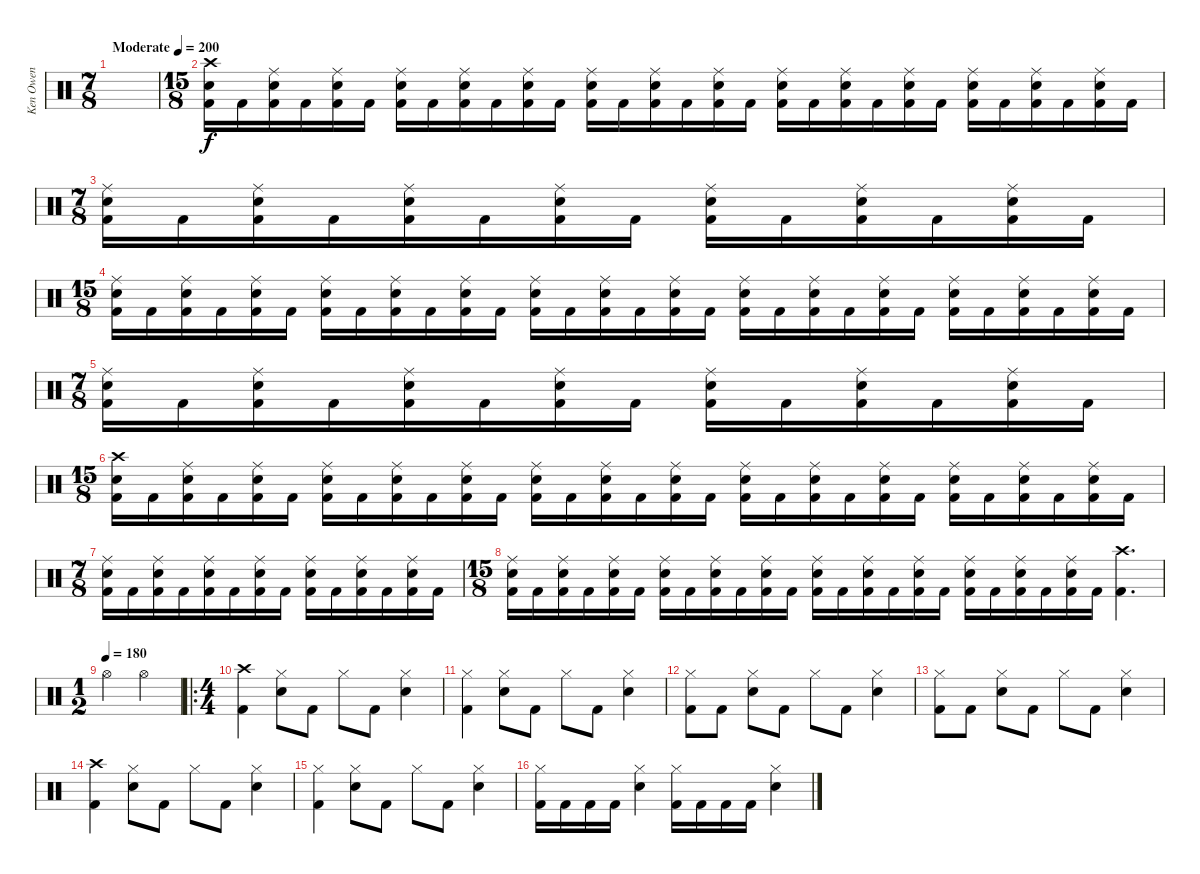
\track ("Ken Owen" "Ken Owen") {instrument percussion}
\staff {score}
\articulation defaults
\ts (7 8)
\tempo (200 "Moderate")
\clef neutral
\ks c
|
\ts (15 8)
("Crash high (hit)" "Snare (hit) 2" "Kick (hit) 2").16 "Kick (hit) 2".16 ("Ride (middle)" "Snare (hit) 2" "Kick (hit) 2").16 "Kick (hit) 2".16 ("Ride (middle)" "Snare (hit) 2" "Kick (hit) 2").16 "Kick (hit) 2".16 ("Ride (middle)" "Snare (hit) 2" "Kick (hit) 2").16 "Kick (hit) 2".16 ("Ride (middle)" "Snare (hit) 2" "Kick (hit) 2").16 "Kick (hit) 2".16 ("Ride (middle)" "Snare (hit) 2" "Kick (hit) 2").16 "Kick (hit) 2".16 ("Ride (middle)" "Snare (hit) 2" "Kick (hit) 2").16 "Kick (hit) 2".16 ("Ride (middle)" "Snare (hit) 2" "Kick (hit) 2").16 "Kick (hit) 2".16 ("Ride (middle)" "Snare (hit) 2" "Kick (hit) 2").16 "Kick (hit) 2".16 ("Ride (middle)" "Snare (hit) 2" "Kick (hit) 2").16 "Kick (hit) 2".16 ("Ride (middle)" "Snare (hit) 2" "Kick (hit) 2").16 "Kick (hit) 2".16 ("Ride (middle)" "Snare (hit) 2" "Kick (hit) 2").16 "Kick (hit) 2".16 ("Ride (middle)" "Snare (hit) 2" "Kick (hit) 2").16 "Kick (hit) 2".16 ("Ride (middle)" "Snare (hit) 2" "Kick (hit) 2").16 "Kick (hit) 2".16 ("Ride (middle)" "Snare (hit) 2" "Kick (hit) 2").16 "Kick (hit) 2".16 |
\ts (7 8)
("Ride (middle)" "Snare (hit) 2" "Kick (hit) 2").16 "Kick (hit) 2".16 ("Ride (middle)" "Snare (hit) 2" "Kick (hit) 2").16 "Kick (hit) 2".16 ("Ride (middle)" "Snare (hit) 2" "Kick (hit) 2").16 "Kick (hit) 2".16 ("Ride (middle)" "Snare (hit) 2" "Kick (hit) 2").16 "Kick (hit) 2".16 ("Ride (middle)" "Snare (hit) 2" "Kick (hit) 2").16 "Kick (hit) 2".16 ("Ride (middle)" "Snare (hit) 2" "Kick (hit) 2").16 "Kick (hit) 2".16 ("Ride (middle)" "Snare (hit) 2" "Kick (hit) 2").16 "Kick (hit) 2".16 |
\ts (15 8)
("Ride (middle)" "Snare (hit) 2" "Kick (hit) 2").16 "Kick (hit) 2".16 ("Ride (middle)" "Snare (hit) 2" "Kick (hit) 2").16 "Kick (hit) 2".16 ("Ride (middle)" "Snare (hit) 2" "Kick (hit) 2").16 "Kick (hit) 2".16 ("Ride (middle)" "Snare (hit) 2" "Kick (hit) 2").16 "Kick (hit) 2".16 ("Ride (middle)" "Snare (hit) 2" "Kick (hit) 2").16 "Kick (hit) 2".16 ("Ride (middle)" "Snare (hit) 2" "Kick (hit) 2").16 "Kick (hit) 2".16 ("Ride (middle)" "Snare (hit) 2" "Kick (hit) 2").16 "Kick (hit) 2".16 ("Ride (middle)" "Snare (hit) 2" "Kick (hit) 2").16 "Kick (hit) 2".16 ("Ride (middle)" "Snare (hit) 2" "Kick (hit) 2").16 "Kick (hit) 2".16 ("Ride (middle)" "Snare (hit) 2" "Kick (hit) 2").16 "Kick (hit) 2".16 ("Ride (middle)" "Snare (hit) 2" "Kick (hit) 2").16 "Kick (hit) 2".16 ("Ride (middle)" "Snare (hit) 2" "Kick (hit) 2").16 "Kick (hit) 2".16 ("Ride (middle)" "Snare (hit) 2" "Kick (hit) 2").16 "Kick (hit) 2".16 ("Ride (middle)" "Snare (hit) 2" "Kick (hit) 2").16 "Kick (hit) 2".16 ("Ride (middle)" "Snare (hit) 2" "Kick (hit) 2").16 "Kick (hit) 2".16 |
\ts (7 8)
("Ride (middle)" "Snare (hit) 2" "Kick (hit) 2").16 "Kick (hit) 2".16 ("Ride (middle)" "Snare (hit) 2" "Kick (hit) 2").16 "Kick (hit) 2".16 ("Ride (middle)" "Snare (hit) 2" "Kick (hit) 2").16 "Kick (hit) 2".16 ("Ride (middle)" "Snare (hit) 2" "Kick (hit) 2").16 "Kick (hit) 2".16 ("Ride (middle)" "Snare (hit) 2" "Kick (hit) 2").16 "Kick (hit) 2".16 ("Ride (middle)" "Snare (hit) 2" "Kick (hit) 2").16 "Kick (hit) 2".16 ("Ride (middle)" "Snare (hit) 2" "Kick (hit) 2").16 "Kick (hit) 2".16 |
\ts (15 8)
("Crash high (hit)" "Snare (hit) 2" "Kick (hit) 2").16 "Kick (hit) 2".16 ("Ride (middle)" "Snare (hit) 2" "Kick (hit) 2").16 "Kick (hit) 2".16 ("Ride (middle)" "Snare (hit) 2" "Kick (hit) 2").16 "Kick (hit) 2".16 ("Ride (middle)" "Snare (hit) 2" "Kick (hit) 2").16 "Kick (hit) 2".16 ("Ride (middle)" "Snare (hit) 2" "Kick (hit) 2").16 "Kick (hit) 2".16 ("Ride (middle)" "Snare (hit) 2" "Kick (hit) 2").16 "Kick (hit) 2".16 ("Ride (middle)" "Snare (hit) 2" "Kick (hit) 2").16 "Kick (hit) 2".16 ("Ride (middle)" "Snare (hit) 2" "Kick (hit) 2").16 "Kick (hit) 2".16 ("Ride (middle)" "Snare (hit) 2" "Kick (hit) 2").16 "Kick (hit) 2".16 ("Ride (middle)" "Snare (hit) 2" "Kick (hit) 2").16 "Kick (hit) 2".16 ("Ride (middle)" "Snare (hit) 2" "Kick (hit) 2").16 "Kick (hit) 2".16 ("Ride (middle)" "Snare (hit) 2" "Kick (hit) 2").16 "Kick (hit) 2".16 ("Ride (middle)" "Snare (hit) 2" "Kick (hit) 2").16 "Kick (hit) 2".16 ("Ride (middle)" "Snare (hit) 2" "Kick (hit) 2").16 "Kick (hit) 2".16 ("Ride (middle)" "Snare (hit) 2" "Kick (hit) 2").16 "Kick (hit) 2".16 |
\ts (7 8)
("Ride (middle)" "Snare (hit) 2" "Kick (hit) 2").16 "Kick (hit) 2".16 ("Ride (middle)" "Snare (hit) 2" "Kick (hit) 2").16 "Kick (hit) 2".16 ("Ride (middle)" "Snare (hit) 2" "Kick (hit) 2").16 "Kick (hit) 2".16 ("Ride (middle)" "Snare (hit) 2" "Kick (hit) 2").16 "Kick (hit) 2".16 ("Ride (middle)" "Snare (hit) 2" "Kick (hit) 2").16 "Kick (hit) 2".16 ("Ride (middle)" "Snare (hit) 2" "Kick (hit) 2").16 "Kick (hit) 2".16 ("Ride (middle)" "Snare (hit) 2" "Kick (hit) 2").16 "Kick (hit) 2".16 |
\ts (15 8)
("Ride (middle)" "Snare (hit) 2" "Kick (hit) 2").16 "Kick (hit) 2".16 ("Ride (middle)" "Snare (hit) 2" "Kick (hit) 2").16 "Kick (hit) 2".16 ("Ride (middle)" "Snare (hit) 2" "Kick (hit) 2").16 "Kick (hit) 2".16 ("Ride (middle)" "Snare (hit) 2" "Kick (hit) 2").16 "Kick (hit) 2".16 ("Ride (middle)" "Snare (hit) 2" "Kick (hit) 2").16 "Kick (hit) 2".16 ("Ride (middle)" "Snare (hit) 2" "Kick (hit) 2").16 "Kick (hit) 2".16 ("Ride (middle)" "Snare (hit) 2" "Kick (hit) 2").16 "Kick (hit) 2".16 ("Ride (middle)" "Snare (hit) 2" "Kick (hit) 2").16 "Kick (hit) 2".16 ("Ride (middle)" "Snare (hit) 2" "Kick (hit) 2").16 "Kick (hit) 2".16 ("Ride (middle)" "Snare (hit) 2" "Kick (hit) 2").16 "Kick (hit) 2".16 ("Ride (middle)" "Snare (hit) 2" "Kick (hit) 2").16 "Kick (hit) 2".16 ("Ride (middle)" "Snare (hit) 2" "Kick (hit) 2").16 "Kick (hit) 2".16 ("Crash high (hit)" "Kick (hit) 2").4{d} |
\ts (1 2)
\tempo (180)
"Hi-Hat (open)".4 "Hi-Hat (open)".4 |
\ro
\ts (4 4)
("Crash high (hit)" "Kick (hit) 2").4 ("Hi-Hat (closed)" "Snare (hit) 2").8 "Kick (hit) 2".8 "Hi-Hat (closed)".8 "Kick (hit) 2".8 ("Hi-Hat (closed)" "Snare (hit) 2").4 |
("Hi-Hat (closed)" "Kick (hit) 2").4 ("Hi-Hat (closed)" "Snare (hit) 2").8 "Kick (hit) 2".8 "Hi-Hat (closed)".8 "Kick (hit) 2".8 ("Hi-Hat (closed)" "Snare (hit) 2").4 |
("Hi-Hat (closed)" "Kick (hit) 2").8 "Kick (hit) 2".8 ("Hi-Hat (closed)" "Snare (hit) 2").8 "Kick (hit) 2".8 "Hi-Hat (closed)".8 "Kick (hit) 2".8 ("Hi-Hat (closed)" "Snare (hit) 2").4 |
("Hi-Hat (closed)" "Kick (hit) 2").8 "Kick (hit) 2".8 ("Hi-Hat (closed)" "Snare (hit) 2").8 "Kick (hit) 2".8 "Hi-Hat (closed)".8 "Kick (hit) 2".8 ("Hi-Hat (closed)" "Snare (hit) 2").4 |
("Crash high (hit)" "Kick (hit) 2").4 ("Hi-Hat (closed)" "Snare (hit) 2").8 "Kick (hit) 2".8 "Hi-Hat (closed)".8 "Kick (hit) 2".8 ("Hi-Hat (closed)" "Snare (hit) 2").4 |
("Hi-Hat (closed)" "Kick (hit) 2").4 ("Hi-Hat (closed)" "Snare (hit) 2").8 "Kick (hit) 2".8 "Hi-Hat (closed)".8 "Kick (hit) 2".8 ("Hi-Hat (closed)" "Snare (hit) 2").4 |
("Hi-Hat (closed)" "Kick (hit) 2").16 "Kick (hit) 2".16 "Kick (hit) 2".16 "Kick (hit) 2".16 ("Hi-Hat (closed)" "Snare (hit) 2").4 ("Hi-Hat (closed)" "Kick (hit) 2").16 "Kick (hit) 2".16 "Kick (hit) 2".16 "Kick (hit) 2".16 ("Hi-Hat (closed)" "Snare (hit) 2").4
